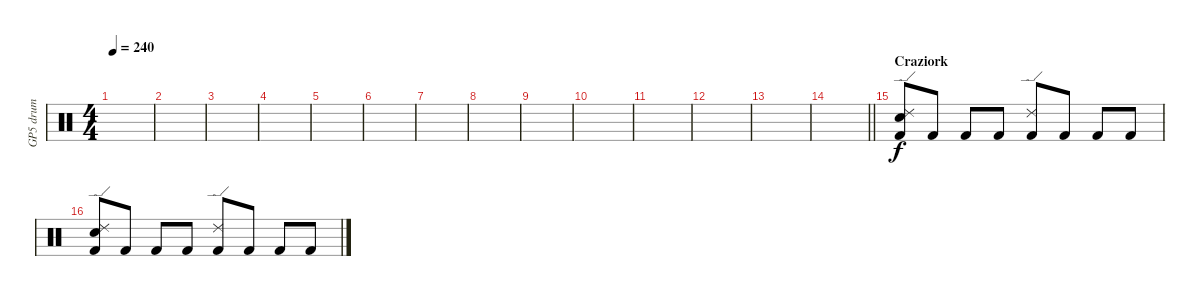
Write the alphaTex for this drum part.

\track ("GP5 drum" "GP5 drum") {instrument percussion}
\staff {score}
\articulation defaults
\ts (4 4)
\tempo 240
\clef neutral
\ks c
|
|
|
|
|
|
|
|
|
|
|
|
|
\barLineRight lightlight
|
\section ("" "Craziork")
("Ride (edge) 2" "Electric Snare (hit)" "Kick (hit) 2").8 "Kick (hit) 2".8 "Kick (hit) 2".8 "Kick (hit) 2".8 ("Ride (edge) 2" "Kick (hit) 2").8 "Kick (hit) 2".8 "Kick (hit) 2".8 "Kick (hit) 2".8 |
("Ride (edge) 2" "Electric Snare (hit)" "Kick (hit) 2").8 "Kick (hit) 2".8 "Kick (hit) 2".8 "Kick (hit) 2".8 ("Ride (edge) 2" "Kick (hit) 2").8 "Kick (hit) 2".8 "Kick (hit) 2".8 "Kick (hit) 2".8
